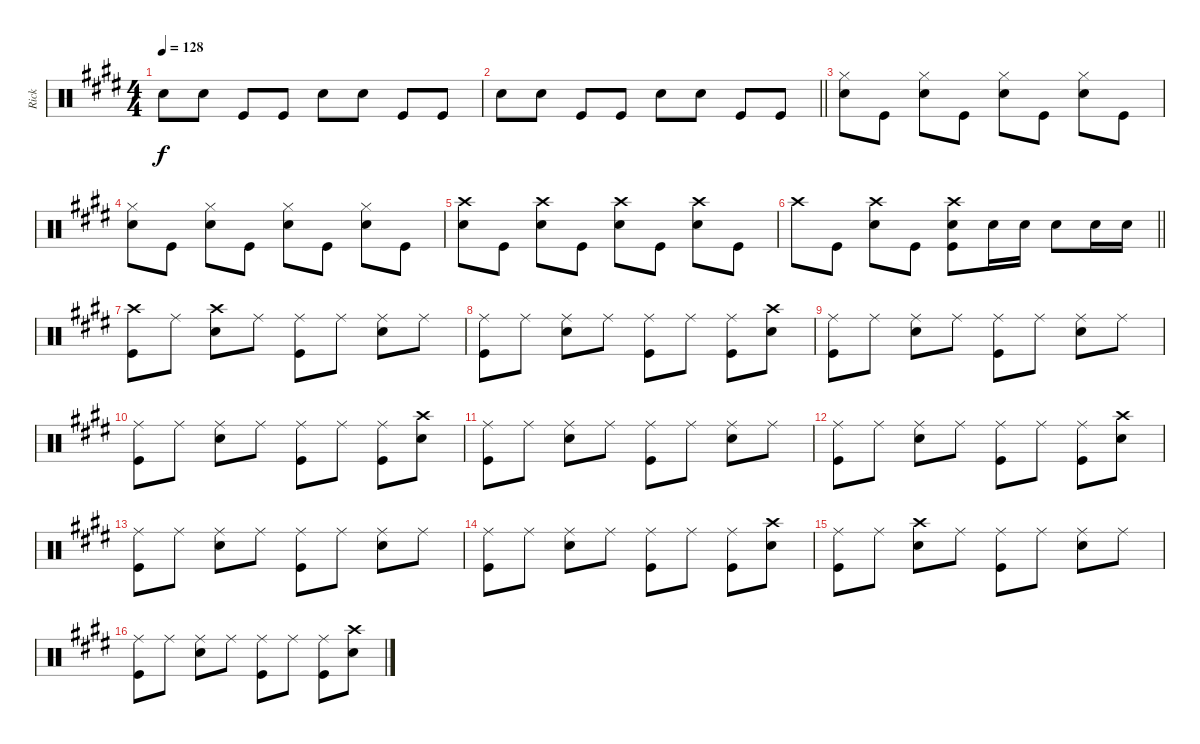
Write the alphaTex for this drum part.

\track ("Rick" "Rick") {instrument percussion}
\staff {score}
\articulation defaults
\ts (4 4)
\tempo 128
\clef neutral
\ks c#minor "Snare (hit) 2".8{dy f} "Snare (hit) 2".8 "Kick (hit)".8 "Kick (hit)".8 "Snare (hit) 2".8 "Snare (hit) 2".8 "Kick (hit)".8 "Kick (hit)".8
|
\barLineRight lightlight "Snare (hit) 2".8 "Snare (hit) 2".8 "Kick (hit)".8 "Kick (hit)".8 "Snare (hit) 2".8 "Snare (hit) 2".8 "Kick (hit)".8 "Kick (hit)".8
|
("Hi-Hat (closed)" "Snare (hit) 2").8 "Kick (hit)".8 ("Hi-Hat (closed)" "Snare (hit) 2").8 "Kick (hit)".8 ("Hi-Hat (closed)" "Snare (hit) 2").8 "Kick (hit)".8 ("Hi-Hat (closed)" "Snare (hit) 2").8 "Kick (hit)".8 |
("Hi-Hat (closed)" "Snare (hit) 2").8 "Kick (hit)".8 ("Hi-Hat (closed)" "Snare (hit) 2").8 "Kick (hit)".8 ("Hi-Hat (closed)" "Snare (hit) 2").8 "Kick (hit)".8 ("Hi-Hat (closed)" "Snare (hit) 2").8 "Kick (hit)".8 |
("Crash high (hit)" "Snare (hit) 2").8 "Kick (hit)".8 ("Crash high (hit)" "Snare (hit) 2").8 "Kick (hit)".8 ("Crash high (hit)" "Snare (hit) 2").8 "Kick (hit)".8 ("Crash high (hit)" "Snare (hit) 2").8 "Kick (hit)".8 |
\barLineRight lightlight "Crash high (hit)".8 "Kick (hit)".8
("Crash high (hit)" "Snare (hit) 2").8 "Kick (hit)".8 ("Crash high (hit)" "Snare (hit) 2" "Kick (hit)").8 "Snare (hit) 2".16 "Snare (hit) 2".16 "Snare (hit) 2".8 "Snare (hit) 2".16 "Snare (hit) 2".16 |
("Crash high (hit)" "Kick (hit)").8 "Ride (middle)".8 ("Crash high (hit)" "Snare (hit) 2").8 "Ride (middle)".8 ("Ride (middle)" "Kick (hit)").8 "Ride (middle)".8 ("Ride (middle)" "Snare (hit) 2").8 "Ride (middle)".8 |
("Ride (middle)" "Kick (hit)").8 "Ride (middle)".8 ("Ride (middle)" "Snare (hit) 2").8 "Ride (middle)".8 ("Ride (middle)" "Kick (hit)").8 "Ride (middle)".8 ("Ride (middle)" "Kick (hit)").8 ("Crash high (hit)" "Snare (hit) 2").8 |
("Ride (middle)" "Kick (hit)").8 "Ride (middle)".8 ("Ride (middle)" "Snare (hit) 2").8 "Ride (middle)".8 ("Ride (middle)" "Kick (hit)").8 "Ride (middle)".8 ("Ride (middle)" "Snare (hit) 2").8 "Ride (middle)".8 |
("Ride (middle)" "Kick (hit)").8 "Ride (middle)".8 ("Ride (middle)" "Snare (hit) 2").8 "Ride (middle)".8 ("Ride (middle)" "Kick (hit)").8 "Ride (middle)".8 ("Ride (middle)" "Kick (hit)").8 ("Crash high (hit)" "Snare (hit) 2").8 |
("Ride (middle)" "Kick (hit)").8 "Ride (middle)".8 ("Ride (middle)" "Snare (hit) 2").8 "Ride (middle)".8 ("Ride (middle)" "Kick (hit)").8 "Ride (middle)".8 ("Ride (middle)" "Snare (hit) 2").8 "Ride (middle)".8 |
("Ride (middle)" "Kick (hit)").8 "Ride (middle)".8 ("Ride (middle)" "Snare (hit) 2").8 "Ride (middle)".8 ("Ride (middle)" "Kick (hit)").8 "Ride (middle)".8 ("Ride (middle)" "Kick (hit)").8 ("Crash high (hit)" "Snare (hit) 2").8 |
("Ride (middle)" "Kick (hit)").8 "Ride (middle)".8 ("Ride (middle)" "Snare (hit) 2").8 "Ride (middle)".8 ("Ride (middle)" "Kick (hit)").8 "Ride (middle)".8 ("Ride (middle)" "Snare (hit) 2").8 "Ride (middle)".8 |
("Ride (middle)" "Kick (hit)").8 "Ride (middle)".8 ("Ride (middle)" "Snare (hit) 2").8 "Ride (middle)".8 ("Ride (middle)" "Kick (hit)").8 "Ride (middle)".8 ("Ride (middle)" "Kick (hit)").8 ("Crash high (hit)" "Snare (hit) 2").8 |
("Ride (middle)" "Kick (hit)").8 "Ride (middle)".8 ("Crash high (hit)" "Snare (hit) 2").8 "Ride (middle)".8 ("Ride (middle)" "Kick (hit)").8 "Ride (middle)".8 ("Ride (middle)" "Snare (hit) 2").8 "Ride (middle)".8 |
("Ride (middle)" "Kick (hit)").8 "Ride (middle)".8 ("Ride (middle)" "Snare (hit) 2").8 "Ride (middle)".8 ("Ride (middle)" "Kick (hit)").8 "Ride (middle)".8 ("Ride (middle)" "Kick (hit)").8 ("Crash high (hit)" "Snare (hit) 2").8
